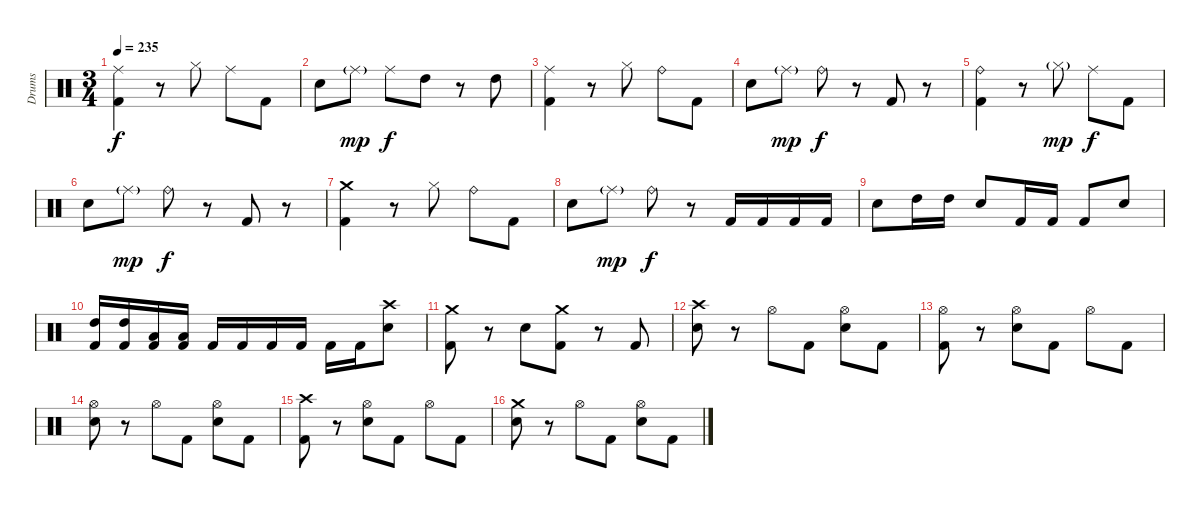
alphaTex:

\track ("Drums" "Drums") {instrument percussion}
\staff {score}
\articulation defaults
\ts (3 4)
\tempo 235
\clef neutral
\ks c
("Ride (middle)" "Kick (hit) 2").4{dy f} r.8 "Hi-Hat (closed)".8 "Ride (middle)".8 "Kick (hit) 2".8 |
"Electric Snare (hit)".8 "Ride (middle)"{g}.8{dy mp} "Ride (middle)".8{dy f} "High Tom (hit)".8 r.8 "High Tom (hit)".8 |
("Ride (middle)" "Kick (hit) 2").4 r.8 "Hi-Hat (closed)".8 "Ride (bell)".8 "Kick (hit) 2".8 |
"Electric Snare (hit)".8 "Ride (middle)"{g}.8{dy mp} "Ride (bell)".8{dy f} r.8 "Kick (hit) 2".8 r.8 |
("Ride (bell)" "Kick (hit) 2").4 r.8 "Hi-Hat (closed)"{g}.8{dy mp} "Ride (middle)".8{dy f} "Kick (hit) 2".8 |
"Electric Snare (hit)".8 "Ride (middle)"{g}.8{dy mp} "Ride (bell)".8{dy f} r.8 "Kick (hit) 2".8 r.8 |
("Crash medium (hit)" "Kick (hit) 2").4 r.8 "Hi-Hat (closed)".8 "Ride (bell)".8 "Kick (hit) 2".8 |
"Electric Snare (hit)".8 "Ride (middle)"{g}.8{dy mp} "Ride (bell)".8{dy f} r.8 "Kick (hit) 2".16 "Kick (hit) 2".16 "Kick (hit) 2".16 "Kick (hit) 2".16 |
"Electric Snare (hit)".8 "High Tom (hit)".16 "High Tom (hit)".16 "Electric Snare (hit)".8 "Kick (hit) 2".16 "Kick (hit) 2".16 "Kick (hit) 2".8 "Electric Snare (hit)".8 |
("High Tom (hit)" "Kick (hit) 2").16 ("High Tom (hit)" "Kick (hit) 2").16 ("Low Tom (hit)" "Kick (hit) 2").16 ("Low Tom (hit)" "Kick (hit) 2").16 "Kick (hit) 2".16 "Kick (hit) 2".16 "Kick (hit) 2".16 "Kick (hit) 2".16 "Kick (hit) 2".16 "Kick (hit) 2".16 ("Crash high (hit)" "Electric Snare (hit)").8 |
("Crash medium (hit)" "Kick (hit) 2").8 r.8 "Electric Snare (hit)".8 ("Crash medium (hit)" "Kick (hit) 2").8 r.8 "Kick (hit) 2".8 |
("Crash high (hit)" "Electric Snare (hit)").8 r.8 "Hi-Hat (open)".8 "Kick (hit) 2".8 ("Hi-Hat (open)" "Electric Snare (hit)").8 "Kick (hit) 2".8 |
("Hi-Hat (open)" "Kick (hit) 2").8 r.8 ("Hi-Hat (open)" "Electric Snare (hit)").8 "Kick (hit) 2".8 "Hi-Hat (open)".8 "Kick (hit) 2".8 |
("Hi-Hat (open)" "Electric Snare (hit)").8 r.8 "Hi-Hat (open)".8 "Kick (hit) 2".8 ("Hi-Hat (open)" "Electric Snare (hit)").8 "Kick (hit) 2".8 |
("Crash high (hit)" "Kick (hit) 2").8 r.8 ("Hi-Hat (open)" "Electric Snare (hit)").8 "Kick (hit) 2".8 "Hi-Hat (open)".8 "Kick (hit) 2".8 |
("Crash medium (hit)" "Electric Snare (hit)").8 r.8 "Hi-Hat (open)".8 "Kick (hit) 2".8 ("Hi-Hat (open)" "Electric Snare (hit)").8 "Kick (hit) 2".8
